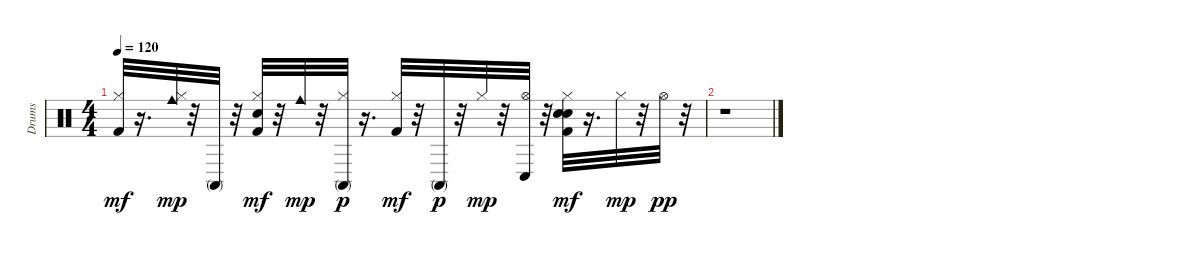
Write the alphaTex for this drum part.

\track ("Drums" "Drums") {instrument percussion}
\staff {score}
\articulation defaults
\ts (4 4)
\tempo 120
\clef neutral
\ks c
("Hi-Hat (closed)" "Kick (hit) 2").32{dy mf} r.16{d} ("Hi-Hat (closed)" "Cowbell medium (hit)").32{dy mp} r.32 "Conga high (mute)".32 r.32 ("Hi-Hat (closed)" "Electric Snare (hit)" "Kick (hit) 2").32{dy mf} r.32 "Cowbell medium (hit)".32{dy mp} r.32 ("Hi-Hat (closed)" "Conga high (mute)").32{dy p} r.16{d} ("Hi-Hat (closed)" "Kick (hit) 2").32{dy mf} r.32 "Conga high (mute)".32{dy p} r.32 "Hi-Hat (closed)".32{dy mp} r.32 ("Hi-Hat (open)" "Conga low (hit)").32 r.32 ("Kick (hit) 2" "Hi-Hat (closed)" "Electric Snare (hit)" "Hand Clap (hit)").32{dy mf} r.16{d} "Hi-Hat (closed)".32{dy mp} r.32 "Hi-Hat (open)".32{dy pp} r.32 |
r.1
